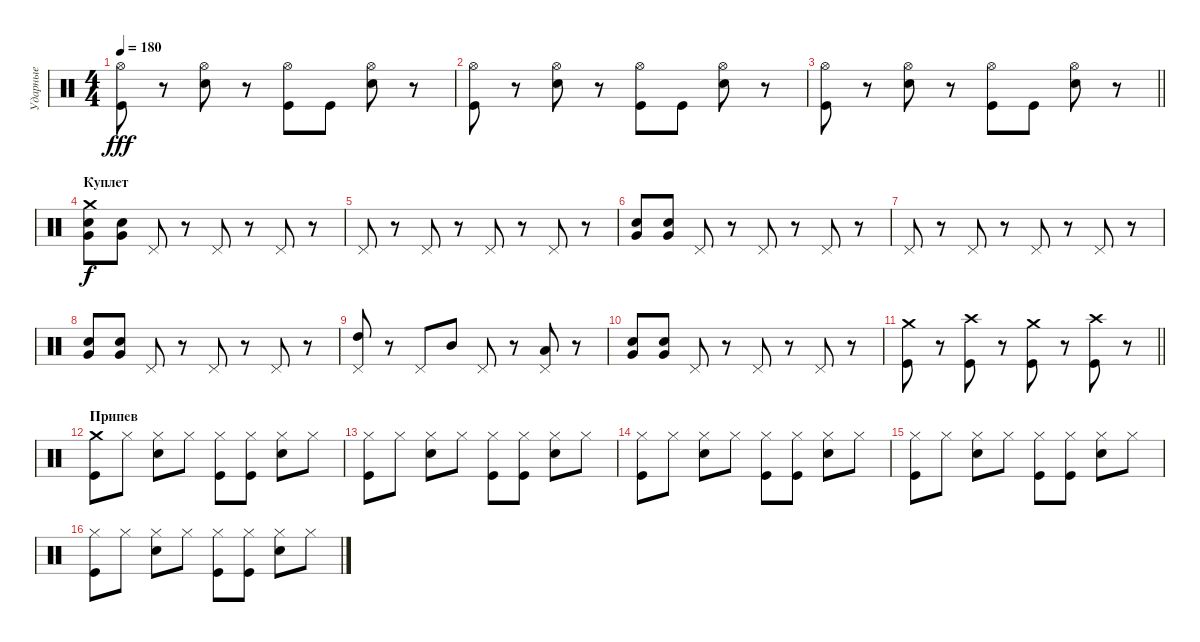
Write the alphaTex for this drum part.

\track ("Ударные" "Ударные") {instrument percussion}
\staff {score}
\articulation defaults
\ts (4 4)
\tempo 180
\clef neutral
\ks c
("Hi-Hat (open)" "Kick (hit)").8{dy fff} r.8 ("Hi-Hat (open)" "Electric Snare (hit)").8 r.8 ("Hi-Hat (open)" "Kick (hit)").8 "Kick (hit)".8 ("Hi-Hat (open)" "Electric Snare (hit)").8 r.8 |
("Hi-Hat (open)" "Kick (hit)").8 r.8 ("Hi-Hat (open)" "Electric Snare (hit)").8 r.8 ("Hi-Hat (open)" "Kick (hit)").8 "Kick (hit)".8 ("Hi-Hat (open)" "Electric Snare (hit)").8 r.8 |
\barLineRight lightlight
("Hi-Hat (open)" "Kick (hit)").8 r.8 ("Hi-Hat (open)" "Electric Snare (hit)").8 r.8 ("Hi-Hat (open)" "Kick (hit)").8 "Kick (hit)".8 ("Hi-Hat (open)" "Electric Snare (hit)").8 r.8 |
\section ("" "Куплет")
("Very Low Tom (hit)" "Electric Snare (hit)" "Crash medium (hit)").8{dy f} ("Very Low Tom (hit)" "Electric Snare (hit)").8 "Pedal Hi-Hat (hit)".8 r.8 "Pedal Hi-Hat (hit)".8 r.8 "Pedal Hi-Hat (hit)".8 r.8 |
"Pedal Hi-Hat (hit)".8 r.8 "Pedal Hi-Hat (hit)".8 r.8 "Pedal Hi-Hat (hit)".8 r.8 "Pedal Hi-Hat (hit)".8 r.8 |
("Very Low Tom (hit)" "Electric Snare (hit)").8 ("Very Low Tom (hit)" "Electric Snare (hit)").8 "Pedal Hi-Hat (hit)".8 r.8 "Pedal Hi-Hat (hit)".8 r.8 "Pedal Hi-Hat (hit)".8 r.8 |
"Pedal Hi-Hat (hit)".8 r.8 "Pedal Hi-Hat (hit)".8 r.8 "Pedal Hi-Hat (hit)".8 r.8 "Pedal Hi-Hat (hit)".8 r.8 |
("Very Low Tom (hit)" "Electric Snare (hit)").8 ("Very Low Tom (hit)" "Electric Snare (hit)").8 "Pedal Hi-Hat (hit)".8 r.8 "Pedal Hi-Hat (hit)".8 r.8 "Pedal Hi-Hat (hit)".8 r.8 |
("High Tom (hit)" "Pedal Hi-Hat (hit)").8 r.8 "Pedal Hi-Hat (hit)".8 "Mid Tom (hit)".8 "Pedal Hi-Hat (hit)".8 r.8 ("Low Tom (hit)" "Pedal Hi-Hat (hit)").8 r.8 |
("Very Low Tom (hit)" "Electric Snare (hit)").8 ("Very Low Tom (hit)" "Electric Snare (hit)").8 "Pedal Hi-Hat (hit)".8 r.8 "Pedal Hi-Hat (hit)".8 r.8 "Pedal Hi-Hat (hit)".8 r.8 |
\barLineRight lightlight
("Crash medium (hit)" "Kick (hit)").8 r.8 ("Crash high (hit)" "Kick (hit)").8 r.8 ("Crash medium (hit)" "Kick (hit)").8 r.8 ("Crash high (hit)" "Kick (hit)").8 r.8 |
\section ("" "Припев")
("Crash medium (hit)" "Kick (hit)").8 "Hi-Hat (closed)".8 ("Hi-Hat (closed)" "Electric Snare (hit)").8 "Hi-Hat (closed)".8 ("Hi-Hat (closed)" "Kick (hit)").8 ("Hi-Hat (closed)" "Kick (hit)").8 ("Hi-Hat (closed)" "Electric Snare (hit)").8 "Hi-Hat (closed)".8 |
("Hi-Hat (closed)" "Kick (hit)").8 "Hi-Hat (closed)".8 ("Hi-Hat (closed)" "Electric Snare (hit)").8 "Hi-Hat (closed)".8 ("Hi-Hat (closed)" "Kick (hit)").8 ("Hi-Hat (closed)" "Kick (hit)").8 ("Hi-Hat (closed)" "Electric Snare (hit)").8 "Hi-Hat (closed)".8 |
("Hi-Hat (closed)" "Kick (hit)").8 "Hi-Hat (closed)".8 ("Hi-Hat (closed)" "Electric Snare (hit)").8 "Hi-Hat (closed)".8 ("Hi-Hat (closed)" "Kick (hit)").8 ("Hi-Hat (closed)" "Kick (hit)").8 ("Hi-Hat (closed)" "Electric Snare (hit)").8 "Hi-Hat (closed)".8 |
("Hi-Hat (closed)" "Kick (hit)").8 "Hi-Hat (closed)".8 ("Hi-Hat (closed)" "Electric Snare (hit)").8 "Hi-Hat (closed)".8 ("Hi-Hat (closed)" "Kick (hit)").8 ("Hi-Hat (closed)" "Kick (hit)").8 ("Hi-Hat (closed)" "Electric Snare (hit)").8 "Hi-Hat (closed)".8 |
("Hi-Hat (closed)" "Kick (hit)").8 "Hi-Hat (closed)".8 ("Hi-Hat (closed)" "Electric Snare (hit)").8 "Hi-Hat (closed)".8 ("Hi-Hat (closed)" "Kick (hit)").8 ("Hi-Hat (closed)" "Kick (hit)").8 ("Hi-Hat (closed)" "Electric Snare (hit)").8 "Hi-Hat (closed)".8
